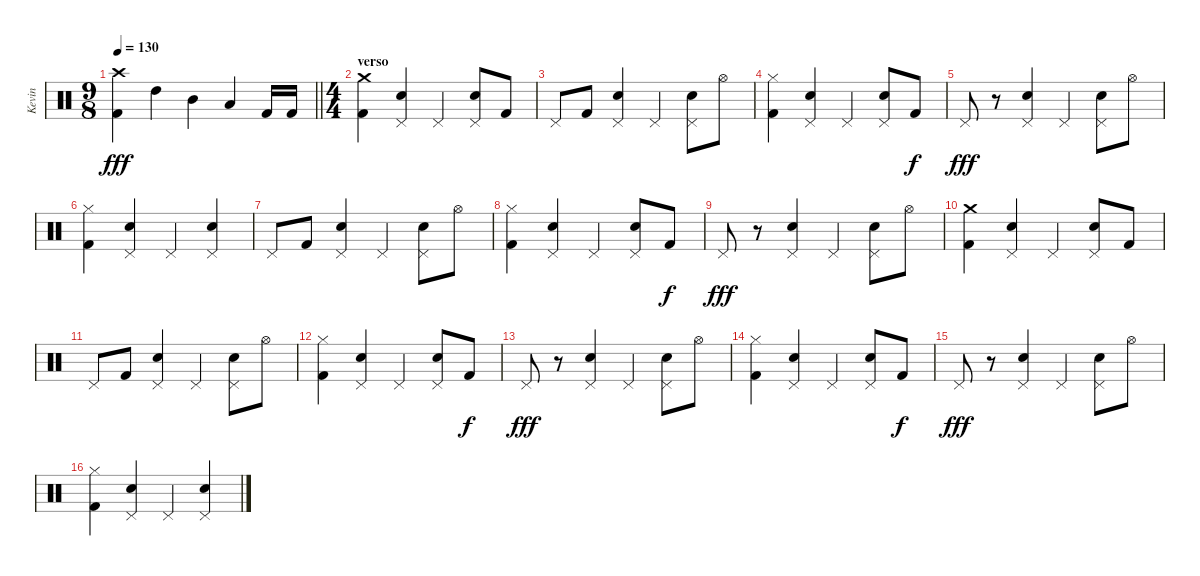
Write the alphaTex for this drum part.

\track ("Kevin" "Kevin") {instrument percussion}
\staff {score}
\articulation defaults
\ts (9 8)
\tempo 130
\clef neutral
\barLineRight lightlight
\ks c
("Crash high (hit)" "Kick (hit) 2").4{dy fff} "High Tom (hit)".4 "Mid Tom (hit)".4 "Low Tom (hit)".4 "Kick (hit) 2".16 "Kick (hit) 2".16 |
\ts (4 4)
\section ("" "verso")
("Crash medium (hit)" "Kick (hit) 2").4 ("Pedal Hi-Hat (hit)" "Electric Snare (hit)").4 "Pedal Hi-Hat (hit)".4 ("Pedal Hi-Hat (hit)" "Electric Snare (hit)").8 "Kick (hit) 2".8 |
"Pedal Hi-Hat (hit)".8 "Kick (hit) 2".8 ("Pedal Hi-Hat (hit)" "Electric Snare (hit)").4 "Pedal Hi-Hat (hit)".4 ("Pedal Hi-Hat (hit)" "Electric Snare (hit)").8 "Hi-Hat (open)".8 |
("Hi-Hat (closed)" "Kick (hit) 2").4 ("Pedal Hi-Hat (hit)" "Electric Snare (hit)").4 "Pedal Hi-Hat (hit)".4 ("Pedal Hi-Hat (hit)" "Electric Snare (hit)").8 "Kick (hit) 2".8{dy f} |
"Pedal Hi-Hat (hit)".8{dy fff} r.8 ("Pedal Hi-Hat (hit)" "Electric Snare (hit)").4 "Pedal Hi-Hat (hit)".4 ("Pedal Hi-Hat (hit)" "Electric Snare (hit)").8 "Hi-Hat (open)".8 |
("Hi-Hat (closed)" "Kick (hit) 2").4 ("Pedal Hi-Hat (hit)" "Electric Snare (hit)").4 "Pedal Hi-Hat (hit)".4 ("Pedal Hi-Hat (hit)" "Electric Snare (hit)").4 |
"Pedal Hi-Hat (hit)".8 "Kick (hit) 2".8 ("Pedal Hi-Hat (hit)" "Electric Snare (hit)").4 "Pedal Hi-Hat (hit)".4 ("Pedal Hi-Hat (hit)" "Electric Snare (hit)").8 "Hi-Hat (open)".8 |
("Hi-Hat (closed)" "Kick (hit) 2").4 ("Pedal Hi-Hat (hit)" "Electric Snare (hit)").4 "Pedal Hi-Hat (hit)".4 ("Pedal Hi-Hat (hit)" "Electric Snare (hit)").8 "Kick (hit) 2".8{dy f} |
"Pedal Hi-Hat (hit)".8{dy fff} r.8 ("Pedal Hi-Hat (hit)" "Electric Snare (hit)").4 "Pedal Hi-Hat (hit)".4 ("Pedal Hi-Hat (hit)" "Electric Snare (hit)").8 "Hi-Hat (open)".8 |
("Crash medium (hit)" "Kick (hit) 2").4 ("Pedal Hi-Hat (hit)" "Electric Snare (hit)").4 "Pedal Hi-Hat (hit)".4 ("Pedal Hi-Hat (hit)" "Electric Snare (hit)").8 "Kick (hit) 2".8 |
"Pedal Hi-Hat (hit)".8 "Kick (hit) 2".8 ("Pedal Hi-Hat (hit)" "Electric Snare (hit)").4 "Pedal Hi-Hat (hit)".4 ("Pedal Hi-Hat (hit)" "Electric Snare (hit)").8 "Hi-Hat (open)".8 |
("Hi-Hat (closed)" "Kick (hit) 2").4 ("Pedal Hi-Hat (hit)" "Electric Snare (hit)").4 "Pedal Hi-Hat (hit)".4 ("Pedal Hi-Hat (hit)" "Electric Snare (hit)").8 "Kick (hit) 2".8{dy f} |
"Pedal Hi-Hat (hit)".8{dy fff} r.8 ("Pedal Hi-Hat (hit)" "Electric Snare (hit)").4 "Pedal Hi-Hat (hit)".4 ("Pedal Hi-Hat (hit)" "Electric Snare (hit)").8 "Hi-Hat (open)".8 |
("Hi-Hat (closed)" "Kick (hit) 2").4 ("Pedal Hi-Hat (hit)" "Electric Snare (hit)").4 "Pedal Hi-Hat (hit)".4 ("Pedal Hi-Hat (hit)" "Electric Snare (hit)").8 "Kick (hit) 2".8{dy f} |
"Pedal Hi-Hat (hit)".8{dy fff} r.8 ("Pedal Hi-Hat (hit)" "Electric Snare (hit)").4 "Pedal Hi-Hat (hit)".4 ("Pedal Hi-Hat (hit)" "Electric Snare (hit)").8 "Hi-Hat (open)".8 |
("Hi-Hat (closed)" "Kick (hit) 2").4 ("Pedal Hi-Hat (hit)" "Electric Snare (hit)").4 "Pedal Hi-Hat (hit)".4 ("Pedal Hi-Hat (hit)" "Electric Snare (hit)").4
